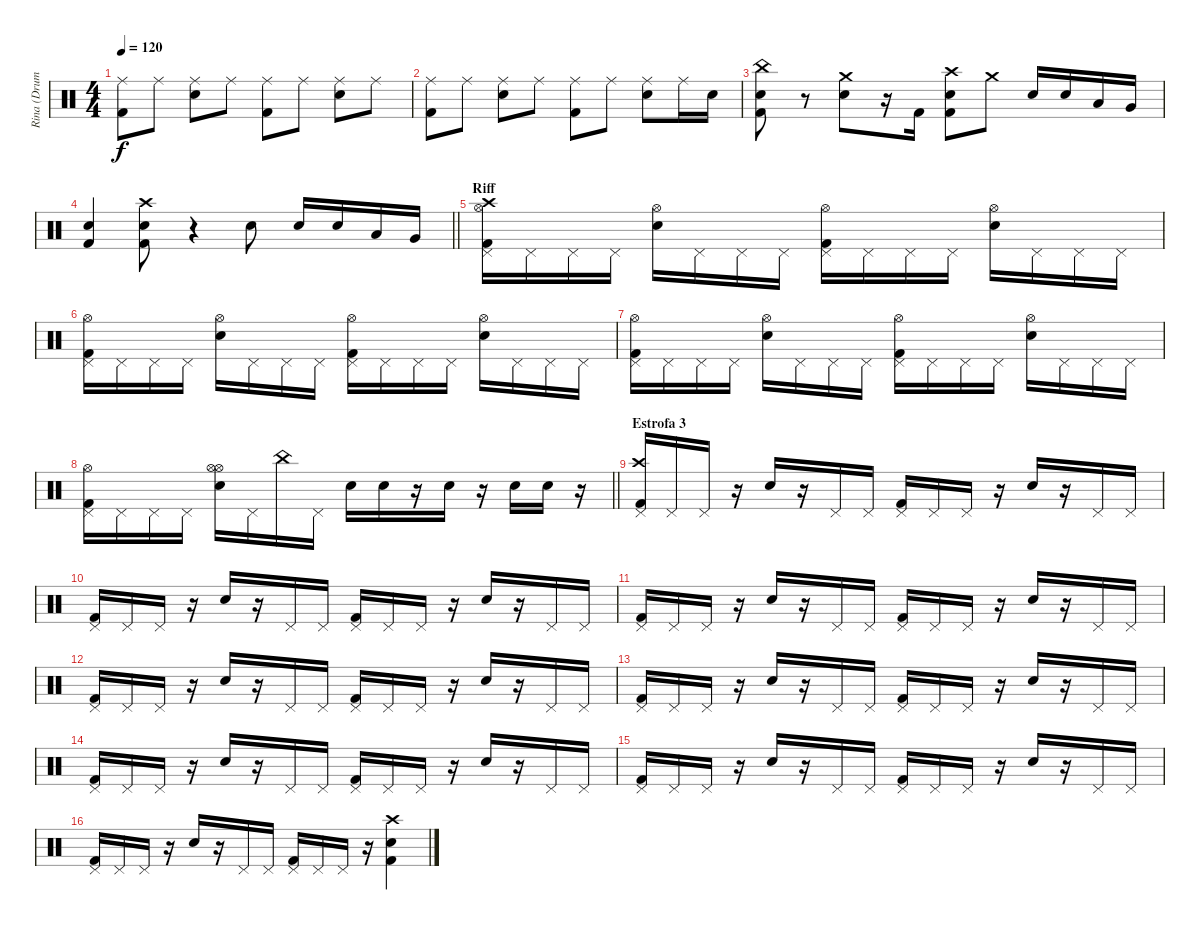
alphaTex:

\track ("Rina (Drums)" "Rina (Drum") {instrument percussion}
\staff {score}
\articulation defaults
\ts (4 4)
\tempo 120
\clef neutral
\ks c
("Ride (middle)" "Kick (hit) 2").8{dy f} "Ride (middle)".8 ("Ride (middle)" "Snare (hit) 2").8 "Ride (middle)".8 ("Ride (middle)" "Kick (hit) 2").8 "Ride (middle)".8 ("Ride (middle)" "Snare (hit) 2").8 "Ride (middle)".8 |
("Ride (middle)" "Kick (hit) 2").8 "Ride (middle)".8 ("Ride (middle)" "Snare (hit) 2").8 "Ride (middle)".8 ("Ride (middle)" "Kick (hit) 2").8 "Ride (middle)".8 ("Ride (middle)" "Snare (hit) 2").8 "Ride (middle)".16 "Snare (hit) 2".16 |
("China (hit)" "Snare (hit) 2" "Kick (hit) 2").8 r.8 ("Crash medium (hit)" "Snare (hit) 2").8 r.16 "Kick (hit) 2".16 ("Crash high (hit)" "Snare (hit) 2" "Kick (hit) 2").8 "Crash medium (hit)".8 "Snare (hit) 2".16 "Snare (hit) 2".16 "Low Tom (hit)".16 "Very Low Tom (hit)".16 |
\barLineRight lightlight
("Snare (hit) 2" "Kick (hit) 2").4 ("Crash high (hit)" "Snare (hit) 2" "Kick (hit) 2").8 r.4 "Snare (hit) 2".8 "Snare (hit) 2".16 "Snare (hit) 2".16 "Low Tom (hit)".16 "Very Low Tom (hit)".16 |
\section ("" "Riff")
("Pedal Hi-Hat (hit)" "Hi-Hat (open)" "Crash high (hit)" "Kick (hit) 2").16 "Pedal Hi-Hat (hit)".16 "Pedal Hi-Hat (hit)".16 "Pedal Hi-Hat (hit)".16 ("Hi-Hat (open)" "Snare (hit) 2").16 "Pedal Hi-Hat (hit)".16 "Pedal Hi-Hat (hit)".16 "Pedal Hi-Hat (hit)".16 ("Pedal Hi-Hat (hit)" "Hi-Hat (open)" "Kick (hit) 2").16 "Pedal Hi-Hat (hit)".16 "Pedal Hi-Hat (hit)".16 "Pedal Hi-Hat (hit)".16 ("Hi-Hat (open)" "Snare (hit) 2").16 "Pedal Hi-Hat (hit)".16 "Pedal Hi-Hat (hit)".16 "Pedal Hi-Hat (hit)".16 |
("Pedal Hi-Hat (hit)" "Hi-Hat (open)" "Kick (hit) 2").16 "Pedal Hi-Hat (hit)".16 "Pedal Hi-Hat (hit)".16 "Pedal Hi-Hat (hit)".16 ("Hi-Hat (open)" "Snare (hit) 2").16 "Pedal Hi-Hat (hit)".16 "Pedal Hi-Hat (hit)".16 "Pedal Hi-Hat (hit)".16 ("Pedal Hi-Hat (hit)" "Hi-Hat (open)" "Kick (hit) 2").16 "Pedal Hi-Hat (hit)".16 "Pedal Hi-Hat (hit)".16 "Pedal Hi-Hat (hit)".16 ("Hi-Hat (open)" "Snare (hit) 2").16 "Pedal Hi-Hat (hit)".16 "Pedal Hi-Hat (hit)".16 "Pedal Hi-Hat (hit)".16 |
("Pedal Hi-Hat (hit)" "Hi-Hat (open)" "Kick (hit) 2").16 "Pedal Hi-Hat (hit)".16 "Pedal Hi-Hat (hit)".16 "Pedal Hi-Hat (hit)".16 ("Hi-Hat (open)" "Snare (hit) 2").16 "Pedal Hi-Hat (hit)".16 "Pedal Hi-Hat (hit)".16 "Pedal Hi-Hat (hit)".16 ("Pedal Hi-Hat (hit)" "Hi-Hat (open)" "Kick (hit) 2").16 "Pedal Hi-Hat (hit)".16 "Pedal Hi-Hat (hit)".16 "Pedal Hi-Hat (hit)".16 ("Hi-Hat (open)" "Snare (hit) 2").16 "Pedal Hi-Hat (hit)".16 "Pedal Hi-Hat (hit)".16 "Pedal Hi-Hat (hit)".16 |
\barLineRight lightlight
("Pedal Hi-Hat (hit)" "Hi-Hat (open)" "Kick (hit) 2").16 "Pedal Hi-Hat (hit)".16 "Pedal Hi-Hat (hit)".16 "Pedal Hi-Hat (hit)".16 ("Hi-Hat (open)" "Hi-Hat (open)" "Snare (hit) 2").16 "Pedal Hi-Hat (hit)".16 "China (hit)".16 "Pedal Hi-Hat (hit)".16 "Snare (hit) 2".16 "Snare (hit) 2".16 r.16 "Snare (hit) 2".16 r.16 "Snare (hit) 2".16 "Snare (hit) 2".16 r.16 |
\section ("" "Estrofa 3")
("Pedal Hi-Hat (hit)" "Crash high (hit)" "Kick (hit) 2").16 "Pedal Hi-Hat (hit)".16 "Pedal Hi-Hat (hit)".16 r.16 "Snare (hit) 2".16 r.16 "Pedal Hi-Hat (hit)".16 "Pedal Hi-Hat (hit)".16 ("Pedal Hi-Hat (hit)" "Kick (hit) 2").16 "Pedal Hi-Hat (hit)".16 "Pedal Hi-Hat (hit)".16 r.16 "Snare (hit) 2".16 r.16 "Pedal Hi-Hat (hit)".16 "Pedal Hi-Hat (hit)".16 |
("Pedal Hi-Hat (hit)" "Kick (hit) 2").16 "Pedal Hi-Hat (hit)".16 "Pedal Hi-Hat (hit)".16 r.16 "Snare (hit) 2".16 r.16 "Pedal Hi-Hat (hit)".16 "Pedal Hi-Hat (hit)".16 ("Pedal Hi-Hat (hit)" "Kick (hit) 2").16 "Pedal Hi-Hat (hit)".16 "Pedal Hi-Hat (hit)".16 r.16 "Snare (hit) 2".16 r.16 "Pedal Hi-Hat (hit)".16 "Pedal Hi-Hat (hit)".16 |
("Pedal Hi-Hat (hit)" "Kick (hit) 2").16 "Pedal Hi-Hat (hit)".16 "Pedal Hi-Hat (hit)".16 r.16 "Snare (hit) 2".16 r.16 "Pedal Hi-Hat (hit)".16 "Pedal Hi-Hat (hit)".16 ("Pedal Hi-Hat (hit)" "Kick (hit) 2").16 "Pedal Hi-Hat (hit)".16 "Pedal Hi-Hat (hit)".16 r.16 "Snare (hit) 2".16 r.16 "Pedal Hi-Hat (hit)".16 "Pedal Hi-Hat (hit)".16 |
("Pedal Hi-Hat (hit)" "Kick (hit) 2").16 "Pedal Hi-Hat (hit)".16 "Pedal Hi-Hat (hit)".16 r.16 "Snare (hit) 2".16 r.16 "Pedal Hi-Hat (hit)".16 "Pedal Hi-Hat (hit)".16 ("Pedal Hi-Hat (hit)" "Kick (hit) 2").16 "Pedal Hi-Hat (hit)".16 "Pedal Hi-Hat (hit)".16 r.16 "Snare (hit) 2".16 r.16 "Pedal Hi-Hat (hit)".16 "Pedal Hi-Hat (hit)".16 |
("Pedal Hi-Hat (hit)" "Kick (hit) 2").16 "Pedal Hi-Hat (hit)".16 "Pedal Hi-Hat (hit)".16 r.16 "Snare (hit) 2".16 r.16 "Pedal Hi-Hat (hit)".16 "Pedal Hi-Hat (hit)".16 ("Pedal Hi-Hat (hit)" "Kick (hit) 2").16 "Pedal Hi-Hat (hit)".16 "Pedal Hi-Hat (hit)".16 r.16 "Snare (hit) 2".16 r.16 "Pedal Hi-Hat (hit)".16 "Pedal Hi-Hat (hit)".16 |
("Pedal Hi-Hat (hit)" "Kick (hit) 2").16 "Pedal Hi-Hat (hit)".16 "Pedal Hi-Hat (hit)".16 r.16 "Snare (hit) 2".16 r.16 "Pedal Hi-Hat (hit)".16 "Pedal Hi-Hat (hit)".16 ("Pedal Hi-Hat (hit)" "Kick (hit) 2").16 "Pedal Hi-Hat (hit)".16 "Pedal Hi-Hat (hit)".16 r.16 "Snare (hit) 2".16 r.16 "Pedal Hi-Hat (hit)".16 "Pedal Hi-Hat (hit)".16 |
("Pedal Hi-Hat (hit)" "Kick (hit) 2").16 "Pedal Hi-Hat (hit)".16 "Pedal Hi-Hat (hit)".16 r.16 "Snare (hit) 2".16 r.16 "Pedal Hi-Hat (hit)".16 "Pedal Hi-Hat (hit)".16 ("Pedal Hi-Hat (hit)" "Kick (hit) 2").16 "Pedal Hi-Hat (hit)".16 "Pedal Hi-Hat (hit)".16 r.16 "Snare (hit) 2".16 r.16 "Pedal Hi-Hat (hit)".16 "Pedal Hi-Hat (hit)".16 |
("Pedal Hi-Hat (hit)" "Kick (hit) 2").16 "Pedal Hi-Hat (hit)".16 "Pedal Hi-Hat (hit)".16 r.16 "Snare (hit) 2".16 r.16 "Pedal Hi-Hat (hit)".16 "Pedal Hi-Hat (hit)".16 ("Pedal Hi-Hat (hit)" "Kick (hit) 2").16 "Pedal Hi-Hat (hit)".16 "Pedal Hi-Hat (hit)".16 r.16 ("Crash high (hit)" "Snare (hit) 2" "Kick (hit) 2").4
